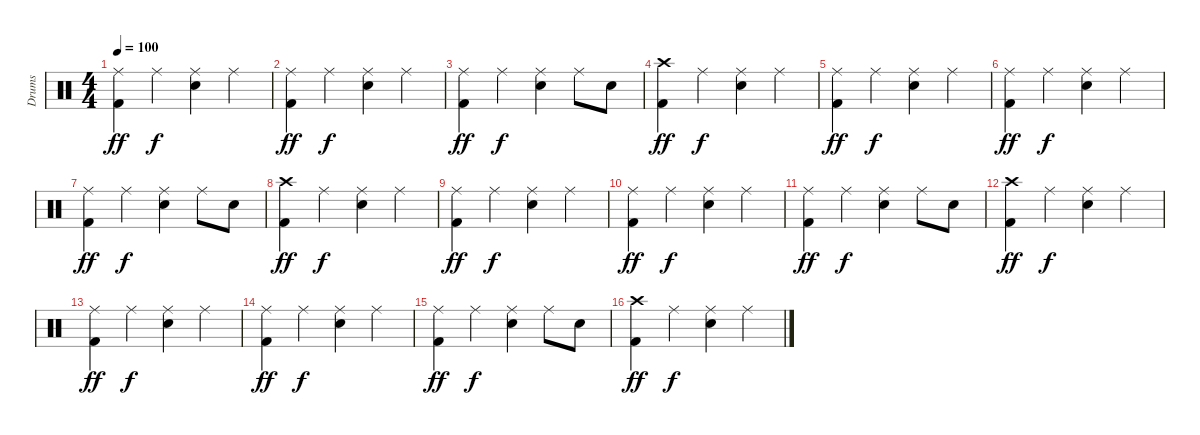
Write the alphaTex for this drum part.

\track ("Drums" "Drums") {instrument percussion}
\staff {score}
\articulation defaults
\ts (4 4)
\tempo 100
\clef neutral
\ks c
("Ride (middle)" "Kick (hit) 2").4{dy ff} "Ride (middle)".4{dy f} ("Ride (middle)" "Electric Snare (hit)").4 "Ride (middle)".4 |
("Ride (middle)" "Kick (hit) 2").4{dy ff} "Ride (middle)".4{dy f} ("Ride (middle)" "Electric Snare (hit)").4 "Ride (middle)".4 |
("Ride (middle)" "Kick (hit) 2").4{dy ff} "Ride (middle)".4{dy f} ("Ride (middle)" "Electric Snare (hit)").4 "Ride (middle)".8 "Electric Snare (hit)".8 |
("Crash high (hit)" "Kick (hit) 2").4{dy ff volume 13} "Ride (middle)".4{dy f} ("Ride (middle)" "Electric Snare (hit)").4 "Ride (middle)".4 |
("Ride (middle)" "Kick (hit) 2").4{dy ff} "Ride (middle)".4{dy f} ("Ride (middle)" "Electric Snare (hit)").4 "Ride (middle)".4 |
("Ride (middle)" "Kick (hit) 2").4{dy ff} "Ride (middle)".4{dy f} ("Ride (middle)" "Electric Snare (hit)").4 "Ride (middle)".4 |
("Ride (middle)" "Kick (hit) 2").4{dy ff} "Ride (middle)".4{dy f} ("Ride (middle)" "Electric Snare (hit)").4 "Ride (middle)".8 "Electric Snare (hit)".8 |
("Crash high (hit)" "Kick (hit) 2").4{dy ff volume 11} "Ride (middle)".4{dy f} ("Ride (middle)" "Electric Snare (hit)").4 "Ride (middle)".4 |
("Ride (middle)" "Kick (hit) 2").4{dy ff} "Ride (middle)".4{dy f} ("Ride (middle)" "Electric Snare (hit)").4 "Ride (middle)".4 |
("Ride (middle)" "Kick (hit) 2").4{dy ff} "Ride (middle)".4{dy f} ("Ride (middle)" "Electric Snare (hit)").4 "Ride (middle)".4 |
("Ride (middle)" "Kick (hit) 2").4{dy ff} "Ride (middle)".4{dy f} ("Ride (middle)" "Electric Snare (hit)").4 "Ride (middle)".8 "Electric Snare (hit)".8 |
("Crash high (hit)" "Kick (hit) 2").4{dy ff volume 10} "Ride (middle)".4{dy f} ("Ride (middle)" "Electric Snare (hit)").4 "Ride (middle)".4 |
("Ride (middle)" "Kick (hit) 2").4{dy ff} "Ride (middle)".4{dy f} ("Ride (middle)" "Electric Snare (hit)").4 "Ride (middle)".4 |
("Ride (middle)" "Kick (hit) 2").4{dy ff} "Ride (middle)".4{dy f} ("Ride (middle)" "Electric Snare (hit)").4 "Ride (middle)".4 |
("Ride (middle)" "Kick (hit) 2").4{dy ff} "Ride (middle)".4{dy f} ("Ride (middle)" "Electric Snare (hit)").4 "Ride (middle)".8 "Electric Snare (hit)".8 |
("Crash high (hit)" "Kick (hit) 2").4{dy ff volume 8} "Ride (middle)".4{dy f} ("Ride (middle)" "Electric Snare (hit)").4 "Ride (middle)".4
